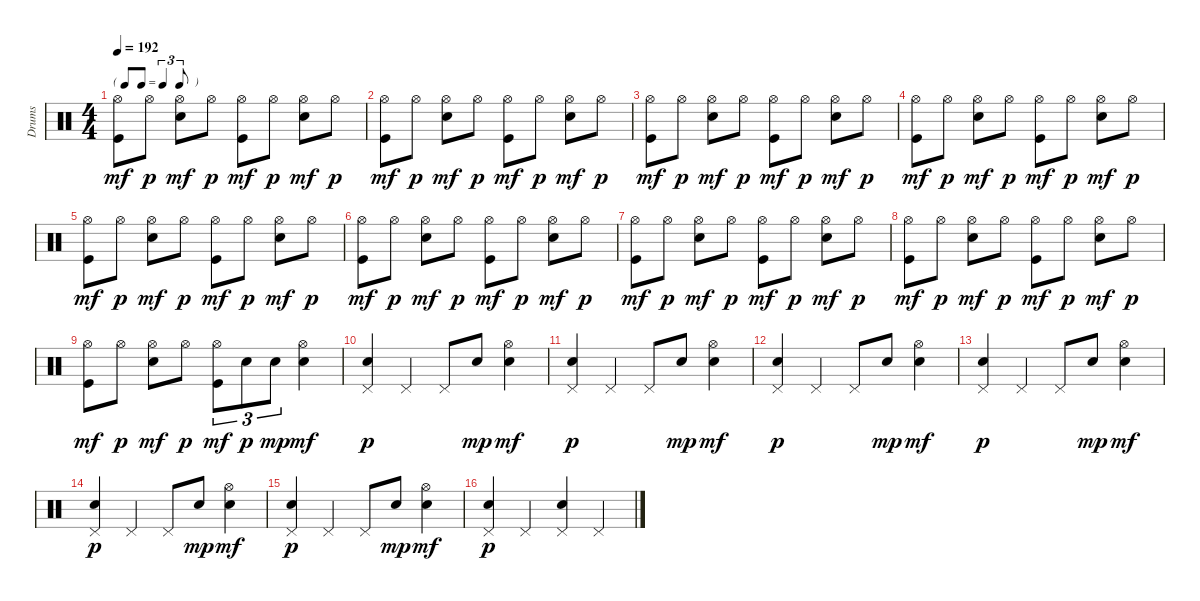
\track ("Drums" "Drums") {instrument percussion}
\staff {score}
\articulation defaults
\ts (4 4)
\tf triplet8th
\tempo 192
\clef neutral
\ks c
("Hi-Hat (open)" "Kick (hit)").8{dy mf} "Hi-Hat (open)".8{dy p} ("Hi-Hat (open)" "Snare (hit) 2").8{dy mf} "Hi-Hat (open)".8{dy p} ("Hi-Hat (open)" "Kick (hit)").8{dy mf} "Hi-Hat (open)".8{dy p} ("Hi-Hat (open)" "Snare (hit) 2").8{dy mf} "Hi-Hat (open)".8{dy p} |
("Hi-Hat (open)" "Kick (hit)").8{dy mf} "Hi-Hat (open)".8{dy p} ("Hi-Hat (open)" "Snare (hit) 2").8{dy mf} "Hi-Hat (open)".8{dy p} ("Hi-Hat (open)" "Kick (hit)").8{dy mf} "Hi-Hat (open)".8{dy p} ("Hi-Hat (open)" "Snare (hit) 2").8{dy mf} "Hi-Hat (open)".8{dy p} |
("Hi-Hat (open)" "Kick (hit)").8{dy mf} "Hi-Hat (open)".8{dy p} ("Hi-Hat (open)" "Snare (hit) 2").8{dy mf} "Hi-Hat (open)".8{dy p} ("Hi-Hat (open)" "Kick (hit)").8{dy mf} "Hi-Hat (open)".8{dy p} ("Hi-Hat (open)" "Snare (hit) 2").8{dy mf} "Hi-Hat (open)".8{dy p} |
("Hi-Hat (open)" "Kick (hit)").8{dy mf} "Hi-Hat (open)".8{dy p} ("Hi-Hat (open)" "Snare (hit) 2").8{dy mf} "Hi-Hat (open)".8{dy p} ("Hi-Hat (open)" "Kick (hit)").8{dy mf} "Hi-Hat (open)".8{dy p} ("Hi-Hat (open)" "Snare (hit) 2").8{dy mf} "Hi-Hat (open)".8{dy p} |
("Hi-Hat (open)" "Kick (hit)").8{dy mf} "Hi-Hat (open)".8{dy p} ("Hi-Hat (open)" "Snare (hit) 2").8{dy mf} "Hi-Hat (open)".8{dy p} ("Hi-Hat (open)" "Kick (hit)").8{dy mf} "Hi-Hat (open)".8{dy p} ("Hi-Hat (open)" "Snare (hit) 2").8{dy mf} "Hi-Hat (open)".8{dy p} |
("Hi-Hat (open)" "Kick (hit)").8{dy mf} "Hi-Hat (open)".8{dy p} ("Hi-Hat (open)" "Snare (hit) 2").8{dy mf} "Hi-Hat (open)".8{dy p} ("Hi-Hat (open)" "Kick (hit)").8{dy mf} "Hi-Hat (open)".8{dy p} ("Hi-Hat (open)" "Snare (hit) 2").8{dy mf} "Hi-Hat (open)".8{dy p} |
("Hi-Hat (open)" "Kick (hit)").8{dy mf} "Hi-Hat (open)".8{dy p} ("Hi-Hat (open)" "Snare (hit) 2").8{dy mf} "Hi-Hat (open)".8{dy p} ("Hi-Hat (open)" "Kick (hit)").8{dy mf} "Hi-Hat (open)".8{dy p} ("Hi-Hat (open)" "Snare (hit) 2").8{dy mf} "Hi-Hat (open)".8{dy p} |
("Hi-Hat (open)" "Kick (hit)").8{dy mf} "Hi-Hat (open)".8{dy p} ("Hi-Hat (open)" "Snare (hit) 2").8{dy mf} "Hi-Hat (open)".8{dy p} ("Hi-Hat (open)" "Kick (hit)").8{dy mf} "Hi-Hat (open)".8{dy p} ("Hi-Hat (open)" "Snare (hit) 2").8{dy mf} "Hi-Hat (open)".8{dy p} |
("Hi-Hat (open)" "Kick (hit)").8{dy mf} "Hi-Hat (open)".8{dy p} ("Hi-Hat (open)" "Snare (hit) 2").8{dy mf} "Hi-Hat (open)".8{dy p} ("Hi-Hat (open)" "Kick (hit)").8{tu (3 2) dy mf} "Snare (hit) 2".8{tu (3 2) dy p} "Snare (hit) 2".8{tu (3 2) dy mp} ("Hi-Hat (open)" "Snare (hit) 2").4{dy mf} |
("Pedal Hi-Hat (hit)" "Snare (hit) 2").4{dy p} "Pedal Hi-Hat (hit)".4 "Pedal Hi-Hat (hit)".8 "Snare (hit) 2".8{dy mp} ("Hi-Hat (open)" "Snare (hit) 2").4{dy mf} |
("Pedal Hi-Hat (hit)" "Snare (hit) 2").4{dy p} "Pedal Hi-Hat (hit)".4 "Pedal Hi-Hat (hit)".8 "Snare (hit) 2".8{dy mp} ("Hi-Hat (open)" "Snare (hit) 2").4{dy mf} |
("Pedal Hi-Hat (hit)" "Snare (hit) 2").4{dy p} "Pedal Hi-Hat (hit)".4 "Pedal Hi-Hat (hit)".8 "Snare (hit) 2".8{dy mp} ("Hi-Hat (open)" "Snare (hit) 2").4{dy mf} |
("Pedal Hi-Hat (hit)" "Snare (hit) 2").4{dy p} "Pedal Hi-Hat (hit)".4 "Pedal Hi-Hat (hit)".8 "Snare (hit) 2".8{dy mp} ("Hi-Hat (open)" "Snare (hit) 2").4{dy mf} |
("Pedal Hi-Hat (hit)" "Snare (hit) 2").4{dy p} "Pedal Hi-Hat (hit)".4 "Pedal Hi-Hat (hit)".8 "Snare (hit) 2".8{dy mp} ("Hi-Hat (open)" "Snare (hit) 2").4{dy mf} |
("Pedal Hi-Hat (hit)" "Snare (hit) 2").4{dy p} "Pedal Hi-Hat (hit)".4 "Pedal Hi-Hat (hit)".8 "Snare (hit) 2".8{dy mp} ("Hi-Hat (open)" "Snare (hit) 2").4{dy mf} |
("Pedal Hi-Hat (hit)" "Snare (hit) 2").4{dy p} "Pedal Hi-Hat (hit)".4 ("Pedal Hi-Hat (hit)" "Snare (hit) 2").4 "Pedal Hi-Hat (hit)".4
